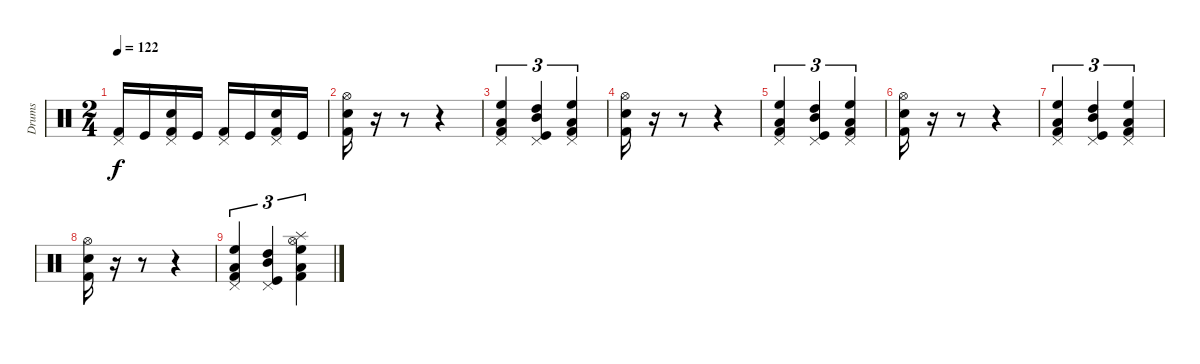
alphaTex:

\track ("Drums" "Drums") {instrument percussion}
\staff {score}
\articulation defaults
\ts (2 4)
\tempo 122
\clef neutral
\ks c
("Pedal Hi-Hat (hit)" "Kick (hit) 2").16{dy f} "Kick (hit)".16 ("Pedal Hi-Hat (hit)" "Snare (hit) 2" "Kick (hit) 2").16 "Kick (hit)".16 ("Pedal Hi-Hat (hit)" "Kick (hit) 2").16 "Kick (hit)".16 ("Pedal Hi-Hat (hit)" "Snare (hit) 2" "Kick (hit) 2").16 "Kick (hit)".16 |
("Hi-Hat (open)" "Snare (hit) 2" "Kick (hit) 2").16 r.16 r.8 r.4 |
("Pedal Hi-Hat (hit)" "High Floor Tom (hit)" "Low Tom (hit)" "Kick (hit) 2").4{tu (3 2)} ("Pedal Hi-Hat (hit)" "High Tom (hit)" "Mid Tom (hit)" "Kick (hit)").4{tu (3 2)} ("Pedal Hi-Hat (hit)" "High Floor Tom (hit)" "Low Tom (hit)" "Kick (hit) 2").4{tu (3 2)} |
("Hi-Hat (open)" "Snare (hit) 2" "Kick (hit) 2").16 r.16 r.8 r.4 |
("Pedal Hi-Hat (hit)" "High Floor Tom (hit)" "Low Tom (hit)" "Kick (hit) 2").4{tu (3 2)} ("Pedal Hi-Hat (hit)" "High Tom (hit)" "Mid Tom (hit)" "Kick (hit)").4{tu (3 2)} ("Pedal Hi-Hat (hit)" "High Floor Tom (hit)" "Low Tom (hit)" "Kick (hit) 2").4{tu (3 2)} |
("Hi-Hat (open)" "Snare (hit) 2" "Kick (hit) 2").16 r.16 r.8 r.4 |
("Pedal Hi-Hat (hit)" "High Floor Tom (hit)" "Low Tom (hit)" "Kick (hit) 2").4{tu (3 2)} ("Pedal Hi-Hat (hit)" "High Tom (hit)" "Mid Tom (hit)" "Kick (hit)").4{tu (3 2)} ("Pedal Hi-Hat (hit)" "High Floor Tom (hit)" "Low Tom (hit)" "Kick (hit) 2").4{tu (3 2)} |
("Hi-Hat (open)" "Snare (hit) 2" "Kick (hit) 2").16 r.16 r.8 r.4 |
("Pedal Hi-Hat (hit)" "High Floor Tom (hit)" "Low Tom (hit)" "Kick (hit) 2").4{tu (3 2)} ("Pedal Hi-Hat (hit)" "High Tom (hit)" "Mid Tom (hit)" "Kick (hit)").4{tu (3 2)} ("Hi-Hat (open)" "High Floor Tom (hit)" "Low Tom (hit)" "Splash (hit)" "Kick (hit) 2").4{tu (3 2)}
